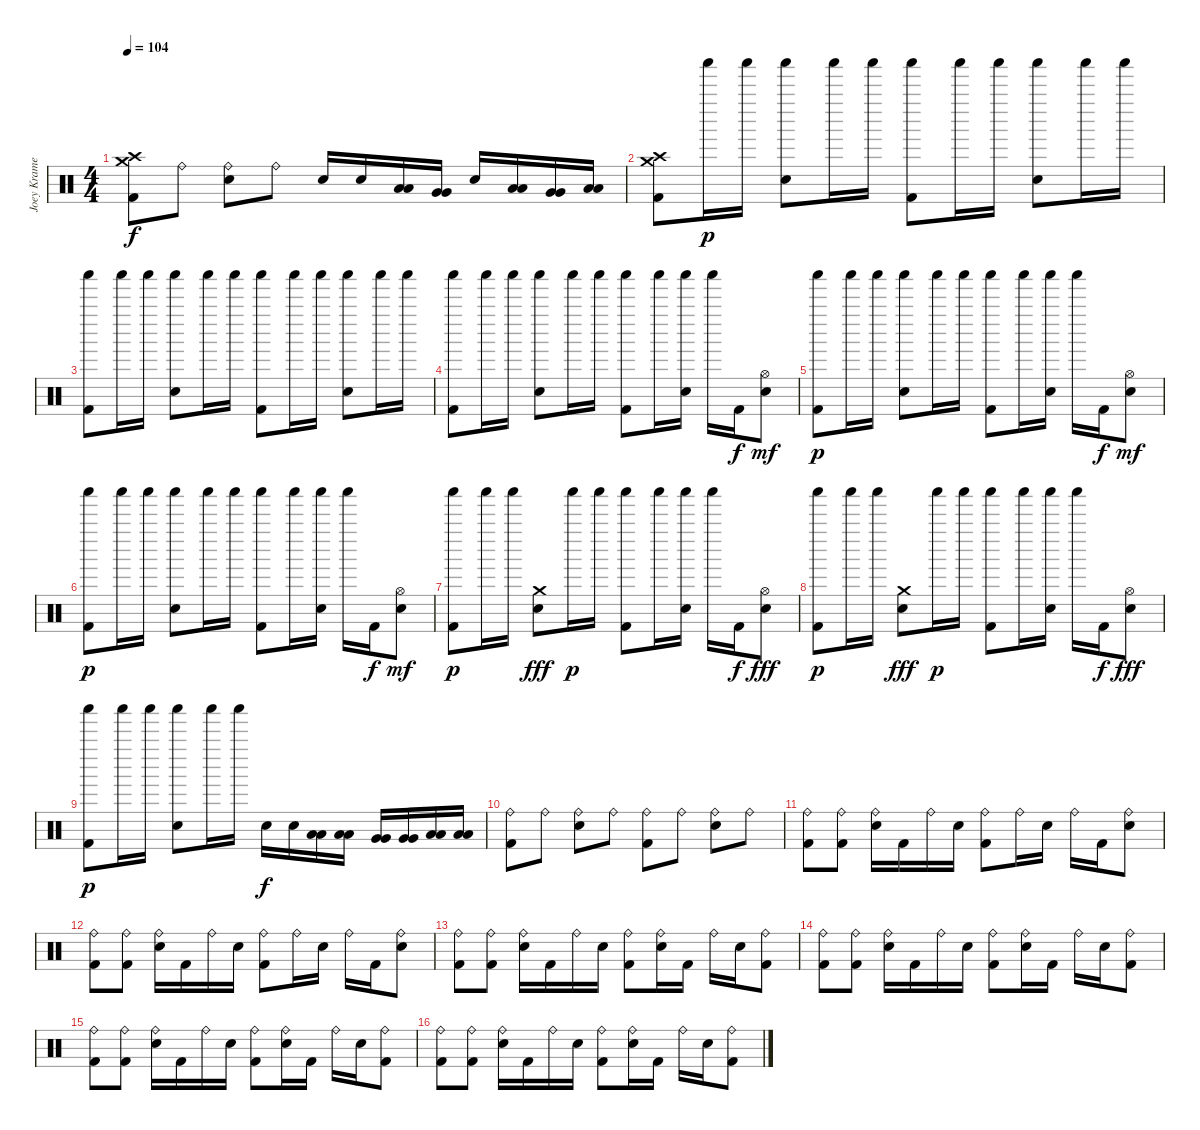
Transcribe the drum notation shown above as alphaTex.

\track ("Joey Kramer" "Joey Krame") {instrument percussion}
\staff {score}
\articulation defaults
\ts (4 4)
\tempo 104
\clef neutral
\ks c
("Crash high (hit)" "Crash medium (hit)" "Kick (hit) 2").8{dy f} "Ride (bell)".8 ("Ride (bell)" "Snare (hit) 2").8 "Ride (bell)".8 "Snare (hit) 2".16 "Snare (hit) 2".16 ("Low Tom (hit)" "Low Tom (hit)").16 ("Very Low Tom (hit)" "Very Low Tom (hit)").16 "Snare (hit) 2".16 ("Low Tom (hit)" "Low Tom (hit)").16 ("Very Low Tom (hit)" "Very Low Tom (hit)").16 ("Low Floor Tom (hit)" "Low Floor Tom (hit)").16 |
("Crash medium (hit)" "Crash high (hit)" "Kick (hit) 2").8 "Shaker (hit)".16{dy p} "Shaker (hit)".16 ("Shaker (hit)" "Snare (hit) 2").8 "Shaker (hit)".16 "Shaker (hit)".16 ("Shaker (hit)" "Kick (hit) 2").8 "Shaker (hit)".16 "Shaker (hit)".16 ("Shaker (hit)" "Snare (hit) 2").8 "Shaker (hit)".16 "Shaker (hit)".16 |
("Shaker (hit)" "Kick (hit) 2").8 "Shaker (hit)".16 "Shaker (hit)".16 ("Shaker (hit)" "Snare (hit) 2").8 "Shaker (hit)".16 "Shaker (hit)".16 ("Shaker (hit)" "Kick (hit) 2").8 "Shaker (hit)".16 "Shaker (hit)".16 ("Shaker (hit)" "Snare (hit) 2").8 "Shaker (hit)".16 "Shaker (hit)".16 |
("Shaker (hit)" "Kick (hit) 2").8 "Shaker (hit)".16 "Shaker (hit)".16 ("Shaker (hit)" "Snare (hit) 2").8 "Shaker (hit)".16 "Shaker (hit)".16 ("Shaker (hit)" "Kick (hit) 2").8 "Shaker (hit)".16 ("Shaker (hit)" "Snare (hit) 2").16 "Shaker (hit)".16 "Kick (hit) 2".16{dy f} ("Hi-Hat (open)" "Snare (hit) 2").8{dy mf} |
("Shaker (hit)" "Kick (hit) 2").8{dy p} "Shaker (hit)".16 "Shaker (hit)".16 ("Shaker (hit)" "Snare (hit) 2").8 "Shaker (hit)".16 "Shaker (hit)".16 ("Shaker (hit)" "Kick (hit) 2").8 "Shaker (hit)".16 ("Shaker (hit)" "Snare (hit) 2").16 "Shaker (hit)".16 "Kick (hit) 2".16{dy f} ("Hi-Hat (open)" "Snare (hit) 2").8{dy mf} |
("Shaker (hit)" "Kick (hit) 2").8{dy p} "Shaker (hit)".16 "Shaker (hit)".16 ("Shaker (hit)" "Snare (hit) 2").8 "Shaker (hit)".16 "Shaker (hit)".16 ("Shaker (hit)" "Kick (hit) 2").8 "Shaker (hit)".16 ("Shaker (hit)" "Snare (hit) 2").16 "Shaker (hit)".16 "Kick (hit) 2".16{dy f} ("Hi-Hat (open)" "Snare (hit) 2").8{dy mf} |
("Shaker (hit)" "Kick (hit) 2").8{dy p} "Shaker (hit)".16 "Shaker (hit)".16 ("Crash medium (hit)" "Snare (hit) 2").8{dy fff} "Shaker (hit)".16{dy p} "Shaker (hit)".16 ("Shaker (hit)" "Kick (hit) 2").8 "Shaker (hit)".16 ("Shaker (hit)" "Snare (hit) 2").16 "Shaker (hit)".16 "Kick (hit) 2".16{dy f} ("Hi-Hat (open)" "Snare (hit) 2").8{dy fff} |
("Shaker (hit)" "Kick (hit) 2").8{dy p volume 11} "Shaker (hit)".16 "Shaker (hit)".16 ("Crash medium (hit)" "Snare (hit) 2").8{dy fff} "Shaker (hit)".16{dy p} "Shaker (hit)".16 ("Shaker (hit)" "Kick (hit) 2").8 "Shaker (hit)".16 ("Shaker (hit)" "Snare (hit) 2").16 "Shaker (hit)".16 "Kick (hit) 2".16{dy f} ("Hi-Hat (open)" "Snare (hit) 2").8{dy fff} |
("Shaker (hit)" "Kick (hit) 2").8{dy p volume 10} "Shaker (hit)".16 "Shaker (hit)".16 ("Shaker (hit)" "Snare (hit) 2").8 "Shaker (hit)".16 "Shaker (hit)".16 "Snare (hit) 2".16{dy f} "Snare (hit) 2".16 ("Low Tom (hit)" "Low Tom (hit)").16 ("Low Tom (hit)" "Low Tom (hit)").16 ("Very Low Tom (hit)" "Very Low Tom (hit)").16 ("Very Low Tom (hit)" "Very Low Tom (hit)").16 ("Low Floor Tom (hit)" "Low Floor Tom (hit)").16 ("Low Floor Tom (hit)" "Low Floor Tom (hit)").16 |
("Ride (bell)" "Kick (hit) 2").8{volume 9} "Ride (bell)".8 ("Ride (bell)" "Snare (hit) 2").8 "Ride (bell)".8 ("Ride (bell)" "Kick (hit) 2").8 "Ride (bell)".8 ("Ride (bell)" "Snare (hit) 2").8 "Ride (bell)".8 |
("Ride (bell)" "Kick (hit) 2").8{volume 8} ("Ride (bell)" "Kick (hit) 2").8 ("Ride (bell)" "Snare (hit) 2").16 "Kick (hit) 2".16 "Ride (bell)".16 "Snare (hit) 2".16 ("Ride (bell)" "Kick (hit) 2").8 "Ride (bell)".16 "Snare (hit) 2".16 "Ride (bell)".16 "Kick (hit) 2".16 ("Ride (bell)" "Snare (hit) 2").8 |
("Ride (bell)" "Kick (hit) 2").8{volume 7} ("Ride (bell)" "Kick (hit) 2").8 ("Ride (bell)" "Snare (hit) 2").16 "Kick (hit) 2".16 "Ride (bell)".16 "Snare (hit) 2".16 ("Ride (bell)" "Kick (hit) 2").8 "Ride (bell)".16 "Snare (hit) 2".16 "Ride (bell)".16 "Kick (hit) 2".16 ("Ride (bell)" "Snare (hit) 2").8 |
("Ride (bell)" "Kick (hit) 2").8{volume 6} ("Ride (bell)" "Kick (hit) 2").8 ("Ride (bell)" "Snare (hit) 2").16 "Kick (hit) 2".16 "Ride (bell)".16 "Snare (hit) 2".16 ("Ride (bell)" "Kick (hit) 2").8 ("Ride (bell)" "Snare (hit) 2").16 "Kick (hit) 2".16 "Ride (bell)".16 "Snare (hit) 2".16 ("Ride (bell)" "Kick (hit) 2").8 |
("Ride (bell)" "Kick (hit) 2").8{volume 5} ("Ride (bell)" "Kick (hit) 2").8 ("Ride (bell)" "Snare (hit) 2").16 "Kick (hit) 2".16 "Ride (bell)".16 "Snare (hit) 2".16 ("Ride (bell)" "Kick (hit) 2").8 ("Ride (bell)" "Snare (hit) 2").16 "Kick (hit) 2".16 "Ride (bell)".16 "Snare (hit) 2".16 ("Ride (bell)" "Kick (hit) 2").8 |
("Ride (bell)" "Kick (hit) 2").8{volume 4} ("Ride (bell)" "Kick (hit) 2").8 ("Ride (bell)" "Snare (hit) 2").16 "Kick (hit) 2".16 "Ride (bell)".16 "Snare (hit) 2".16 ("Ride (bell)" "Kick (hit) 2").8 ("Ride (bell)" "Snare (hit) 2").16 "Kick (hit) 2".16 "Ride (bell)".16 "Snare (hit) 2".16 ("Ride (bell)" "Kick (hit) 2").8 |
("Ride (bell)" "Kick (hit) 2").8{volume 3} ("Ride (bell)" "Kick (hit) 2").8 ("Ride (bell)" "Snare (hit) 2").16 "Kick (hit) 2".16 "Ride (bell)".16 "Snare (hit) 2".16 ("Ride (bell)" "Kick (hit) 2").8 ("Ride (bell)" "Snare (hit) 2").16 "Kick (hit) 2".16 "Ride (bell)".16 "Snare (hit) 2".16 ("Ride (bell)" "Kick (hit) 2").8
